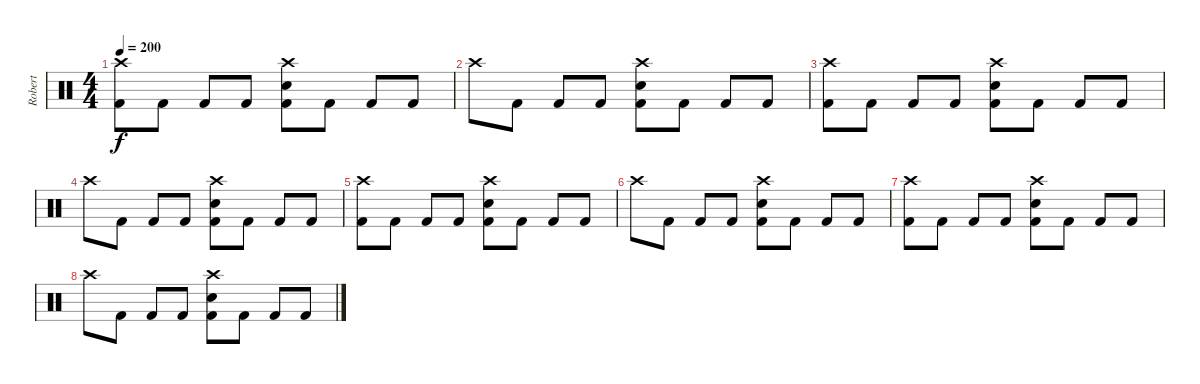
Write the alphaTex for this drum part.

\track ("Robert" "Robert") {instrument percussion}
\staff {score}
\articulation defaults
\ts (4 4)
\tempo 200
\clef neutral
\ks c
("Crash high (hit)" "Kick (hit) 2").8{dy f volume 12} "Kick (hit) 2".8 "Kick (hit) 2".8 "Kick (hit) 2".8 ("Crash high (hit)" "Electric Snare (hit)" "Kick (hit) 2").8 "Kick (hit) 2".8 "Kick (hit) 2".8 "Kick (hit) 2".8 |
"Crash high (hit)".8 "Kick (hit) 2".8 "Kick (hit) 2".8 "Kick (hit) 2".8 ("Crash high (hit)" "Electric Snare (hit)" "Kick (hit) 2").8 "Kick (hit) 2".8 "Kick (hit) 2".8 "Kick (hit) 2".8 |
("Crash high (hit)" "Kick (hit) 2").8 "Kick (hit) 2".8 "Kick (hit) 2".8 "Kick (hit) 2".8 ("Crash high (hit)" "Electric Snare (hit)" "Kick (hit) 2").8 "Kick (hit) 2".8 "Kick (hit) 2".8 "Kick (hit) 2".8 |
"Crash high (hit)".8 "Kick (hit) 2".8 "Kick (hit) 2".8 "Kick (hit) 2".8 ("Crash high (hit)" "Electric Snare (hit)" "Kick (hit) 2").8 "Kick (hit) 2".8 "Kick (hit) 2".8 "Kick (hit) 2".8 |
("Crash high (hit)" "Kick (hit) 2").8 "Kick (hit) 2".8 "Kick (hit) 2".8 "Kick (hit) 2".8 ("Crash high (hit)" "Electric Snare (hit)" "Kick (hit) 2").8 "Kick (hit) 2".8 "Kick (hit) 2".8 "Kick (hit) 2".8 |
"Crash high (hit)".8 "Kick (hit) 2".8 "Kick (hit) 2".8 "Kick (hit) 2".8 ("Crash high (hit)" "Electric Snare (hit)" "Kick (hit) 2").8 "Kick (hit) 2".8 "Kick (hit) 2".8 "Kick (hit) 2".8 |
("Crash high (hit)" "Kick (hit) 2").8 "Kick (hit) 2".8 "Kick (hit) 2".8 "Kick (hit) 2".8 ("Crash high (hit)" "Electric Snare (hit)" "Kick (hit) 2").8 "Kick (hit) 2".8 "Kick (hit) 2".8 "Kick (hit) 2".8 |
"Crash high (hit)".8 "Kick (hit) 2".8 "Kick (hit) 2".8 "Kick (hit) 2".8 ("Crash high (hit)" "Electric Snare (hit)" "Kick (hit) 2").8 "Kick (hit) 2".8 "Kick (hit) 2".8 "Kick (hit) 2".8
